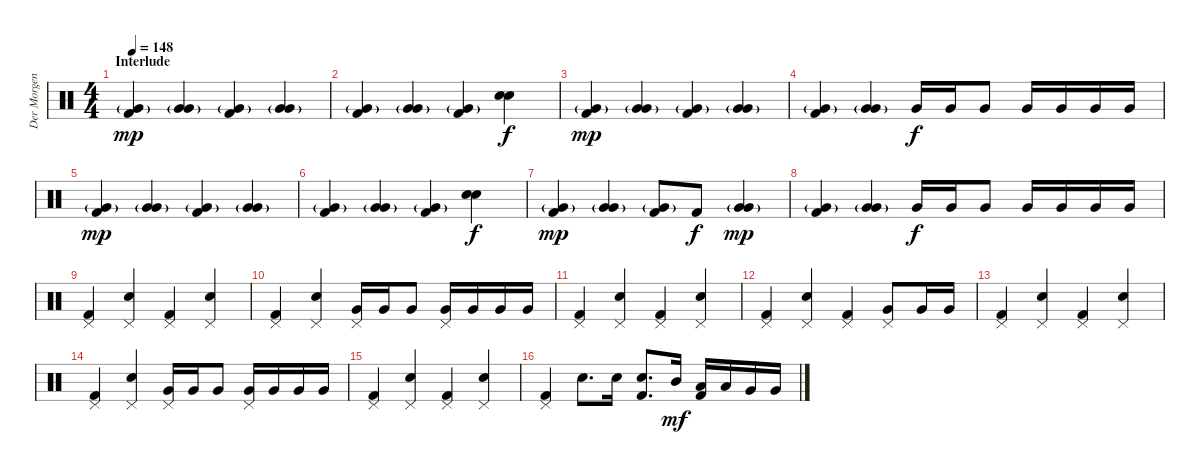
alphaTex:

\track ("Der Morgenstern" "Der Morgen") {instrument percussion}
\staff {score}
\articulation defaults
\ts (4 4)
\section ("" "Interlude")
\tempo 148
\clef neutral
\ks c
("Very Low Tom (hit)"{g} "Kick (hit) 2").4{dy mp} ("Very Low Tom (hit)"{g} "Very Low Tom (hit)").4 ("Very Low Tom (hit)"{g} "Kick (hit) 2").4 ("Very Low Tom (hit)"{g} "Very Low Tom (hit)").4 |
("Very Low Tom (hit)"{g} "Kick (hit) 2").4 ("Very Low Tom (hit)"{g} "Very Low Tom (hit)").4 ("Very Low Tom (hit)"{g} "Kick (hit) 2").4 ("Electric Snare (hit)" "Electric Snare (hit)").4{dy f} |
("Very Low Tom (hit)"{g} "Kick (hit) 2").4{dy mp} ("Very Low Tom (hit)"{g} "Very Low Tom (hit)").4 ("Very Low Tom (hit)"{g} "Kick (hit) 2").4 ("Very Low Tom (hit)"{g} "Very Low Tom (hit)").4 |
("Very Low Tom (hit)"{g} "Kick (hit) 2").4 ("Very Low Tom (hit)"{g} "Very Low Tom (hit)").4 "Very Low Tom (hit)".16{dy f} "Very Low Tom (hit)".16 "Very Low Tom (hit)".8 "Very Low Tom (hit)".16 "Very Low Tom (hit)".16 "Very Low Tom (hit)".16 "Very Low Tom (hit)".16 |
("Very Low Tom (hit)"{g} "Kick (hit) 2").4{dy mp} ("Very Low Tom (hit)"{g} "Very Low Tom (hit)").4 ("Very Low Tom (hit)"{g} "Kick (hit) 2").4 ("Very Low Tom (hit)"{g} "Very Low Tom (hit)").4 |
("Very Low Tom (hit)"{g} "Kick (hit) 2").4 ("Very Low Tom (hit)"{g} "Very Low Tom (hit)").4 ("Very Low Tom (hit)"{g} "Kick (hit) 2").4 ("Electric Snare (hit)" "Electric Snare (hit)").4{dy f} |
("Very Low Tom (hit)"{g} "Kick (hit) 2").4{dy mp} ("Very Low Tom (hit)"{g} "Very Low Tom (hit)").4 ("Very Low Tom (hit)"{g} "Kick (hit) 2").8 "Kick (hit) 2".8{dy f} ("Very Low Tom (hit)"{g} "Very Low Tom (hit)").4{dy mp} |
("Very Low Tom (hit)"{g} "Kick (hit) 2").4 ("Very Low Tom (hit)"{g} "Very Low Tom (hit)").4 "Very Low Tom (hit)".16{dy f} "Very Low Tom (hit)".16 "Very Low Tom (hit)".8 "Very Low Tom (hit)".16 "Very Low Tom (hit)".16 "Very Low Tom (hit)".16 "Very Low Tom (hit)".16 |
("Pedal Hi-Hat (hit)" "Kick (hit) 2").4 ("Pedal Hi-Hat (hit)" "Electric Snare (hit)").4 ("Pedal Hi-Hat (hit)" "Kick (hit) 2").4 ("Pedal Hi-Hat (hit)" "Electric Snare (hit)").4 |
("Pedal Hi-Hat (hit)" "Kick (hit) 2").4 ("Pedal Hi-Hat (hit)" "Electric Snare (hit)").4 ("Pedal Hi-Hat (hit)" "Very Low Tom (hit)").16 "Very Low Tom (hit)".16 "Very Low Tom (hit)".8 ("Pedal Hi-Hat (hit)" "Very Low Tom (hit)").16 "Very Low Tom (hit)".16 "Very Low Tom (hit)".16 "Very Low Tom (hit)".16 |
("Pedal Hi-Hat (hit)" "Kick (hit) 2").4 ("Pedal Hi-Hat (hit)" "Electric Snare (hit)").4 ("Pedal Hi-Hat (hit)" "Kick (hit) 2").4 ("Pedal Hi-Hat (hit)" "Electric Snare (hit)").4 |
("Pedal Hi-Hat (hit)" "Kick (hit) 2").4 ("Pedal Hi-Hat (hit)" "Electric Snare (hit)").4 ("Pedal Hi-Hat (hit)" "Kick (hit) 2").4 ("Pedal Hi-Hat (hit)" "Very Low Tom (hit)").8 "Very Low Tom (hit)".16 "Very Low Tom (hit)".16 |
("Pedal Hi-Hat (hit)" "Kick (hit) 2").4 ("Pedal Hi-Hat (hit)" "Electric Snare (hit)").4 ("Pedal Hi-Hat (hit)" "Kick (hit) 2").4 ("Pedal Hi-Hat (hit)" "Electric Snare (hit)").4 |
("Pedal Hi-Hat (hit)" "Kick (hit) 2").4 ("Pedal Hi-Hat (hit)" "Electric Snare (hit)").4 ("Pedal Hi-Hat (hit)" "Very Low Tom (hit)").16 "Very Low Tom (hit)".16 "Very Low Tom (hit)".8 ("Pedal Hi-Hat (hit)" "Very Low Tom (hit)").16 "Very Low Tom (hit)".16 "Very Low Tom (hit)".16 "Very Low Tom (hit)".16 |
("Pedal Hi-Hat (hit)" "Kick (hit) 2").4 ("Pedal Hi-Hat (hit)" "Electric Snare (hit)").4 ("Pedal Hi-Hat (hit)" "Kick (hit) 2").4 ("Pedal Hi-Hat (hit)" "Electric Snare (hit)").4 |
("Pedal Hi-Hat (hit)" "Kick (hit) 2").4 "Electric Snare (hit)".8{d} "Electric Snare (hit)".16 ("Electric Snare (hit)" "Kick (hit) 2").8{d} "Mid Tom (hit)".16{dy mf} ("Low Tom (hit)" "Kick (hit) 2").16 "Low Tom (hit)".16 "Very Low Tom (hit)".16 "Very Low Tom (hit)".16
